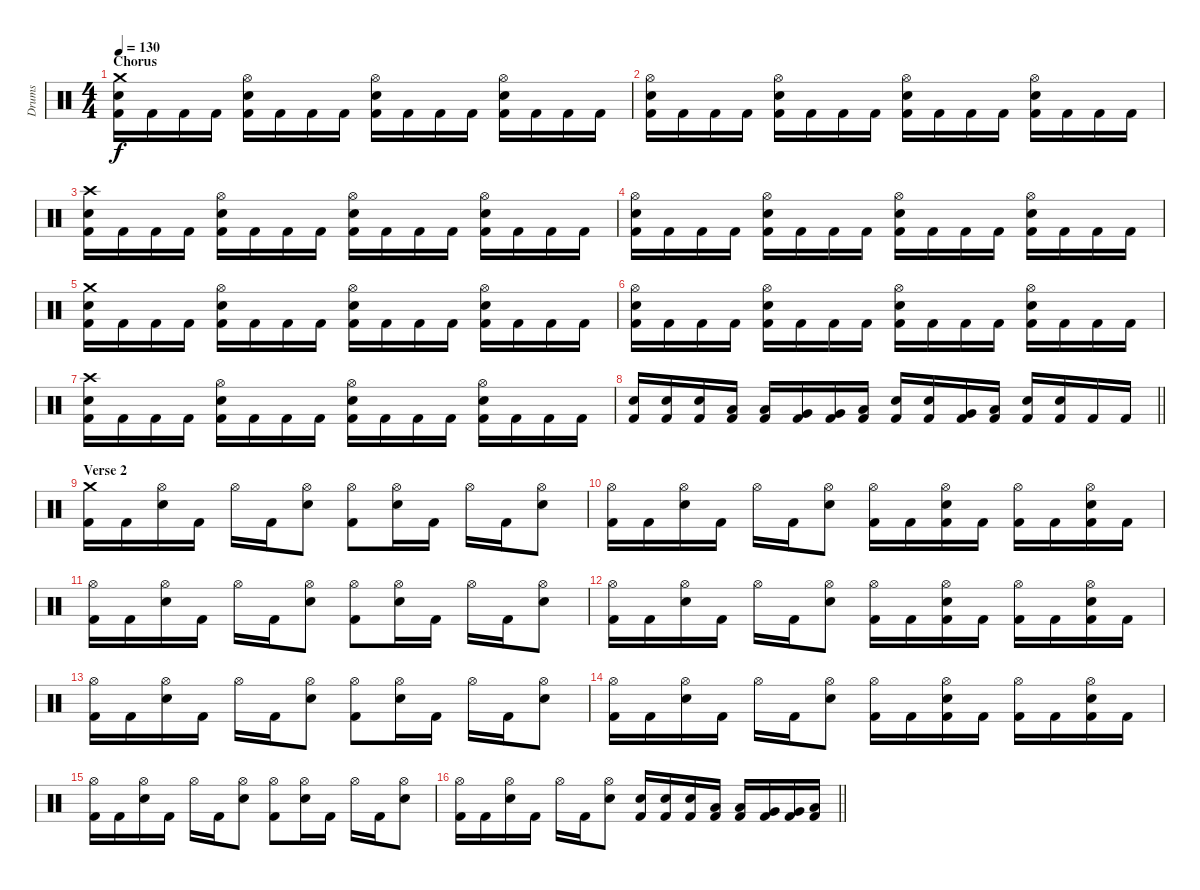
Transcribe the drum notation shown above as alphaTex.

\track ("Drums" "Drums") {instrument percussion}
\staff {score}
\articulation defaults
\ts (4 4)
\section ("" "Chorus")
\tempo 130
\clef neutral
\ks c
("Crash medium (hit)" "Electric Snare (hit)" "Kick (hit) 2").16{dy f} "Kick (hit) 2".16 "Kick (hit) 2".16 "Kick (hit) 2".16 ("Hi-Hat (open)" "Electric Snare (hit)" "Kick (hit) 2").16 "Kick (hit) 2".16 "Kick (hit) 2".16 "Kick (hit) 2".16 ("Hi-Hat (open)" "Electric Snare (hit)" "Kick (hit) 2").16 "Kick (hit) 2".16 "Kick (hit) 2".16 "Kick (hit) 2".16 ("Hi-Hat (open)" "Electric Snare (hit)" "Kick (hit) 2").16 "Kick (hit) 2".16 "Kick (hit) 2".16 "Kick (hit) 2".16 |
("Hi-Hat (open)" "Electric Snare (hit)" "Kick (hit) 2").16 "Kick (hit) 2".16 "Kick (hit) 2".16 "Kick (hit) 2".16 ("Hi-Hat (open)" "Electric Snare (hit)" "Kick (hit) 2").16 "Kick (hit) 2".16 "Kick (hit) 2".16 "Kick (hit) 2".16 ("Hi-Hat (open)" "Electric Snare (hit)" "Kick (hit) 2").16 "Kick (hit) 2".16 "Kick (hit) 2".16 "Kick (hit) 2".16 ("Hi-Hat (open)" "Electric Snare (hit)" "Kick (hit) 2").16 "Kick (hit) 2".16 "Kick (hit) 2".16 "Kick (hit) 2".16 |
("Crash high (hit)" "Electric Snare (hit)" "Kick (hit) 2").16 "Kick (hit) 2".16 "Kick (hit) 2".16 "Kick (hit) 2".16 ("Hi-Hat (open)" "Electric Snare (hit)" "Kick (hit) 2").16 "Kick (hit) 2".16 "Kick (hit) 2".16 "Kick (hit) 2".16 ("Hi-Hat (open)" "Electric Snare (hit)" "Kick (hit) 2").16 "Kick (hit) 2".16 "Kick (hit) 2".16 "Kick (hit) 2".16 ("Hi-Hat (open)" "Electric Snare (hit)" "Kick (hit) 2").16 "Kick (hit) 2".16 "Kick (hit) 2".16 "Kick (hit) 2".16 |
("Hi-Hat (open)" "Electric Snare (hit)" "Kick (hit) 2").16 "Kick (hit) 2".16 "Kick (hit) 2".16 "Kick (hit) 2".16 ("Hi-Hat (open)" "Electric Snare (hit)" "Kick (hit) 2").16 "Kick (hit) 2".16 "Kick (hit) 2".16 "Kick (hit) 2".16 ("Hi-Hat (open)" "Electric Snare (hit)" "Kick (hit) 2").16 "Kick (hit) 2".16 "Kick (hit) 2".16 "Kick (hit) 2".16 ("Hi-Hat (open)" "Electric Snare (hit)" "Kick (hit) 2").16 "Kick (hit) 2".16 "Kick (hit) 2".16 "Kick (hit) 2".16 |
("Crash medium (hit)" "Electric Snare (hit)" "Kick (hit) 2").16 "Kick (hit) 2".16 "Kick (hit) 2".16 "Kick (hit) 2".16 ("Hi-Hat (open)" "Electric Snare (hit)" "Kick (hit) 2").16 "Kick (hit) 2".16 "Kick (hit) 2".16 "Kick (hit) 2".16 ("Hi-Hat (open)" "Electric Snare (hit)" "Kick (hit) 2").16 "Kick (hit) 2".16 "Kick (hit) 2".16 "Kick (hit) 2".16 ("Hi-Hat (open)" "Electric Snare (hit)" "Kick (hit) 2").16 "Kick (hit) 2".16 "Kick (hit) 2".16 "Kick (hit) 2".16 |
("Hi-Hat (open)" "Electric Snare (hit)" "Kick (hit) 2").16 "Kick (hit) 2".16 "Kick (hit) 2".16 "Kick (hit) 2".16 ("Hi-Hat (open)" "Electric Snare (hit)" "Kick (hit) 2").16 "Kick (hit) 2".16 "Kick (hit) 2".16 "Kick (hit) 2".16 ("Hi-Hat (open)" "Electric Snare (hit)" "Kick (hit) 2").16 "Kick (hit) 2".16 "Kick (hit) 2".16 "Kick (hit) 2".16 ("Hi-Hat (open)" "Electric Snare (hit)" "Kick (hit) 2").16 "Kick (hit) 2".16 "Kick (hit) 2".16 "Kick (hit) 2".16 |
("Crash high (hit)" "Electric Snare (hit)" "Kick (hit) 2").16 "Kick (hit) 2".16 "Kick (hit) 2".16 "Kick (hit) 2".16 ("Hi-Hat (open)" "Electric Snare (hit)" "Kick (hit) 2").16 "Kick (hit) 2".16 "Kick (hit) 2".16 "Kick (hit) 2".16 ("Hi-Hat (open)" "Electric Snare (hit)" "Kick (hit) 2").16 "Kick (hit) 2".16 "Kick (hit) 2".16 "Kick (hit) 2".16 ("Hi-Hat (open)" "Electric Snare (hit)" "Kick (hit) 2").16 "Kick (hit) 2".16 "Kick (hit) 2".16 "Kick (hit) 2".16 |
\barLineRight lightlight
("Electric Snare (hit)" "Kick (hit) 2").16 ("Electric Snare (hit)" "Kick (hit) 2").16 ("Electric Snare (hit)" "Kick (hit) 2").16 ("Low Tom (hit)" "Kick (hit) 2").16 ("Low Tom (hit)" "Kick (hit) 2").16 ("Very Low Tom (hit)" "Kick (hit) 2").16 ("Very Low Tom (hit)" "Kick (hit) 2").16 ("Low Floor Tom (hit)" "Kick (hit) 2").16 ("Electric Snare (hit)" "Kick (hit) 2").16 ("Electric Snare (hit)" "Kick (hit) 2").16 ("Very Low Tom (hit)" "Kick (hit) 2").16 ("Low Floor Tom (hit)" "Kick (hit) 2").16 ("Electric Snare (hit)" "Kick (hit) 2").16 ("Electric Snare (hit)" "Kick (hit) 2").16 "Kick (hit) 2".16 "Kick (hit) 2".16 |
\section ("" "Verse 2")
("Crash medium (hit)" "Kick (hit) 2").16 "Kick (hit) 2".16 ("Hi-Hat (open)" "Electric Snare (hit)").16 "Kick (hit) 2".16 "Hi-Hat (open)".16 "Kick (hit) 2".16 ("Hi-Hat (open)" "Electric Snare (hit)").8 ("Hi-Hat (open)" "Kick (hit) 2").8 ("Hi-Hat (open)" "Electric Snare (hit)").16 "Kick (hit) 2".16 "Hi-Hat (open)".16 "Kick (hit) 2".16 ("Hi-Hat (open)" "Electric Snare (hit)").8 |
("Hi-Hat (open)" "Kick (hit) 2").16 "Kick (hit) 2".16 ("Hi-Hat (open)" "Electric Snare (hit)").16 "Kick (hit) 2".16 "Hi-Hat (open)".16 "Kick (hit) 2".16 ("Hi-Hat (open)" "Electric Snare (hit)").8 ("Hi-Hat (open)" "Kick (hit) 2").16 "Kick (hit) 2".16 ("Hi-Hat (open)" "Electric Snare (hit)" "Kick (hit) 2").16 "Kick (hit) 2".16 ("Hi-Hat (open)" "Kick (hit) 2").16 "Kick (hit) 2".16 ("Hi-Hat (open)" "Electric Snare (hit)" "Kick (hit) 2").16 "Kick (hit) 2".16 |
("Hi-Hat (open)" "Kick (hit) 2").16 "Kick (hit) 2".16 ("Hi-Hat (open)" "Electric Snare (hit)").16 "Kick (hit) 2".16 "Hi-Hat (open)".16 "Kick (hit) 2".16 ("Hi-Hat (open)" "Electric Snare (hit)").8 ("Hi-Hat (open)" "Kick (hit) 2").8 ("Hi-Hat (open)" "Electric Snare (hit)").16 "Kick (hit) 2".16 "Hi-Hat (open)".16 "Kick (hit) 2".16 ("Hi-Hat (open)" "Electric Snare (hit)").8 |
("Hi-Hat (open)" "Kick (hit) 2").16 "Kick (hit) 2".16 ("Hi-Hat (open)" "Electric Snare (hit)").16 "Kick (hit) 2".16 "Hi-Hat (open)".16 "Kick (hit) 2".16 ("Hi-Hat (open)" "Electric Snare (hit)").8 ("Hi-Hat (open)" "Kick (hit) 2").16 "Kick (hit) 2".16 ("Hi-Hat (open)" "Electric Snare (hit)" "Kick (hit) 2").16 "Kick (hit) 2".16 ("Hi-Hat (open)" "Kick (hit) 2").16 "Kick (hit) 2".16 ("Hi-Hat (open)" "Electric Snare (hit)" "Kick (hit) 2").16 "Kick (hit) 2".16 |
("Hi-Hat (open)" "Kick (hit) 2").16 "Kick (hit) 2".16 ("Hi-Hat (open)" "Electric Snare (hit)").16 "Kick (hit) 2".16 "Hi-Hat (open)".16 "Kick (hit) 2".16 ("Hi-Hat (open)" "Electric Snare (hit)").8 ("Hi-Hat (open)" "Kick (hit) 2").8 ("Hi-Hat (open)" "Electric Snare (hit)").16 "Kick (hit) 2".16 "Hi-Hat (open)".16 "Kick (hit) 2".16 ("Hi-Hat (open)" "Electric Snare (hit)").8 |
("Hi-Hat (open)" "Kick (hit) 2").16 "Kick (hit) 2".16 ("Hi-Hat (open)" "Electric Snare (hit)").16 "Kick (hit) 2".16 "Hi-Hat (open)".16 "Kick (hit) 2".16 ("Hi-Hat (open)" "Electric Snare (hit)").8 ("Hi-Hat (open)" "Kick (hit) 2").16 "Kick (hit) 2".16 ("Hi-Hat (open)" "Electric Snare (hit)" "Kick (hit) 2").16 "Kick (hit) 2".16 ("Hi-Hat (open)" "Kick (hit) 2").16 "Kick (hit) 2".16 ("Hi-Hat (open)" "Electric Snare (hit)" "Kick (hit) 2").16 "Kick (hit) 2".16 |
("Hi-Hat (open)" "Kick (hit) 2").16 "Kick (hit) 2".16 ("Hi-Hat (open)" "Electric Snare (hit)").16 "Kick (hit) 2".16 "Hi-Hat (open)".16 "Kick (hit) 2".16 ("Hi-Hat (open)" "Electric Snare (hit)").8 ("Hi-Hat (open)" "Kick (hit) 2").8 ("Hi-Hat (open)" "Electric Snare (hit)").16 "Kick (hit) 2".16 "Hi-Hat (open)".16 "Kick (hit) 2".16 ("Hi-Hat (open)" "Electric Snare (hit)").8 |
\barLineRight lightlight
("Hi-Hat (open)" "Kick (hit) 2").16 "Kick (hit) 2".16 ("Hi-Hat (open)" "Electric Snare (hit)").16 "Kick (hit) 2".16 "Hi-Hat (open)".16 "Kick (hit) 2".16 ("Hi-Hat (open)" "Electric Snare (hit)").8 ("Electric Snare (hit)" "Kick (hit) 2").16 ("Electric Snare (hit)" "Kick (hit) 2").16 ("Electric Snare (hit)" "Kick (hit) 2").16 ("Low Tom (hit)" "Kick (hit) 2").16 ("Low Tom (hit)" "Kick (hit) 2").16 ("Very Low Tom (hit)" "Kick (hit) 2").16 ("Very Low Tom (hit)" "Kick (hit) 2").16 ("Low Floor Tom (hit)" "Kick (hit) 2").16
